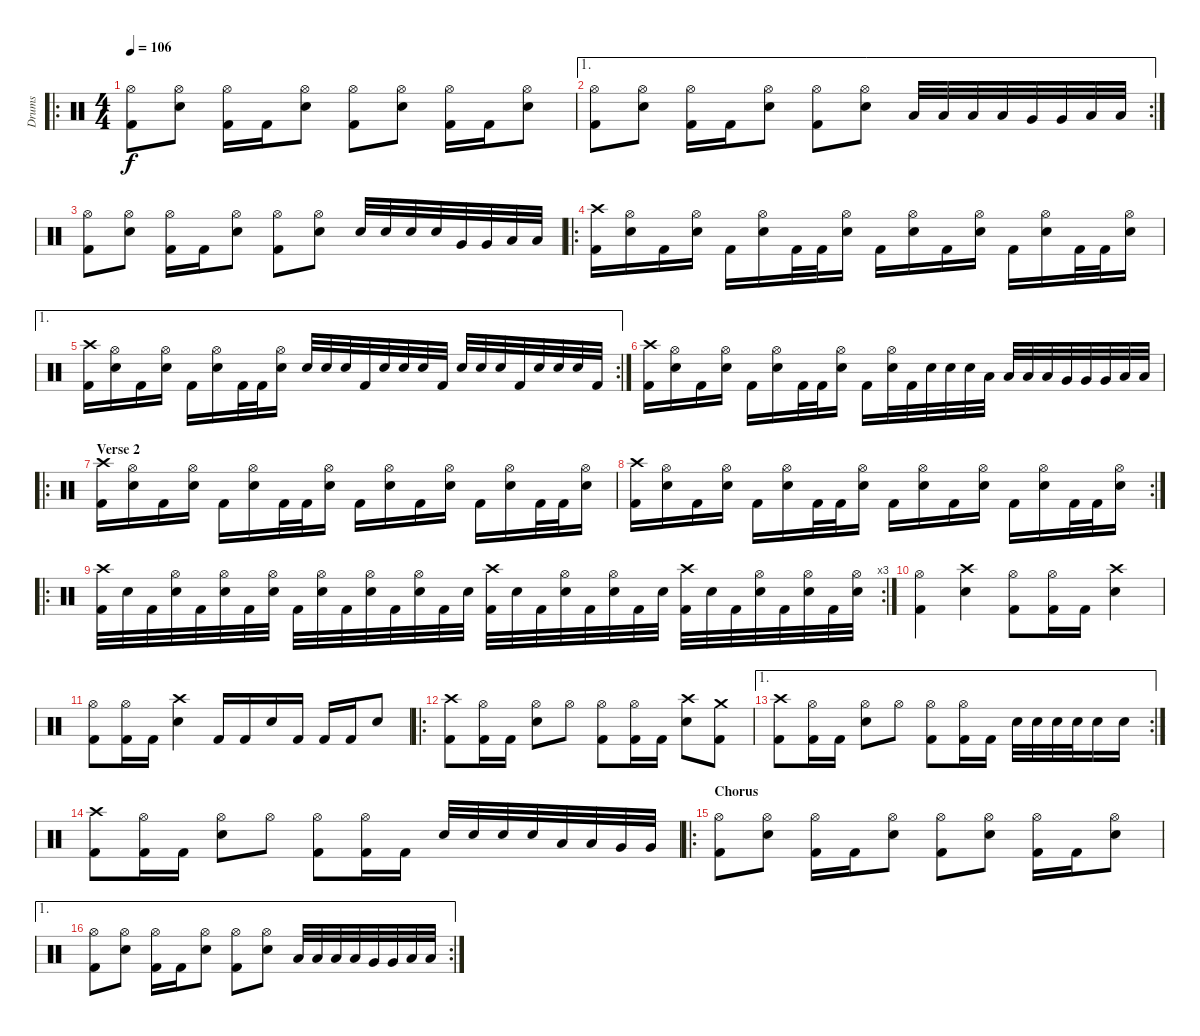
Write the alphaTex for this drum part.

\track ("Drums" "Drums") {instrument percussion}
\staff {score}
\articulation defaults
\ro
\ts (4 4)
\tempo 106
\clef neutral
\ks c
("Hi-Hat (open)" "Kick (hit) 2").8{dy f} ("Hi-Hat (open)" "Electric Snare (hit)").8 ("Hi-Hat (open)" "Kick (hit) 2").16 "Kick (hit) 2".16 ("Hi-Hat (open)" "Electric Snare (hit)").8 ("Hi-Hat (open)" "Kick (hit) 2").8 ("Hi-Hat (open)" "Electric Snare (hit)").8 ("Hi-Hat (open)" "Kick (hit) 2").16 "Kick (hit) 2".16 ("Hi-Hat (open)" "Electric Snare (hit)").8 |
\ae 1
\rc 2
("Hi-Hat (open)" "Kick (hit) 2").8 ("Hi-Hat (open)" "Electric Snare (hit)").8 ("Hi-Hat (open)" "Kick (hit) 2").16 "Kick (hit) 2".16 ("Hi-Hat (open)" "Electric Snare (hit)").8 ("Hi-Hat (open)" "Kick (hit) 2").8 ("Hi-Hat (open)" "Electric Snare (hit)").8 "Low Tom (hit)".32 "Low Tom (hit)".32 "Low Tom (hit)".32 "Low Tom (hit)".32 "Very Low Tom (hit)".32 "Very Low Tom (hit)".32 "Low Floor Tom (hit)".32 "Low Floor Tom (hit)".32 |
("Hi-Hat (open)" "Kick (hit) 2").8 ("Hi-Hat (open)" "Electric Snare (hit)").8 ("Hi-Hat (open)" "Kick (hit) 2").16 "Kick (hit) 2".16 ("Hi-Hat (open)" "Electric Snare (hit)").8 ("Hi-Hat (open)" "Kick (hit) 2").8 ("Hi-Hat (open)" "Electric Snare (hit)").8 "Electric Snare (hit)".32 "Electric Snare (hit)".32 "Electric Snare (hit)".32 "Electric Snare (hit)".32 "Very Low Tom (hit)".32 "Very Low Tom (hit)".32 "Low Floor Tom (hit)".32 "Low Floor Tom (hit)".32 |
\ro
("Crash high (hit)" "Kick (hit) 2").16 ("Electric Snare (hit)" "Hi-Hat (open)").16 "Kick (hit) 2".16 ("Electric Snare (hit)" "Hi-Hat (open)").16 "Kick (hit) 2".16 ("Electric Snare (hit)" "Hi-Hat (open)").16 "Kick (hit) 2".32 "Kick (hit) 2".32 ("Electric Snare (hit)" "Hi-Hat (open)").16 "Kick (hit) 2".16 ("Electric Snare (hit)" "Hi-Hat (open)").16 "Kick (hit) 2".16 ("Electric Snare (hit)" "Hi-Hat (open)").16 "Kick (hit) 2".16 ("Electric Snare (hit)" "Hi-Hat (open)").16 "Kick (hit) 2".32 "Kick (hit) 2".32 ("Electric Snare (hit)" "Hi-Hat (open)").16 |
\ae 1
\rc 2
("Crash high (hit)" "Kick (hit) 2").16 ("Electric Snare (hit)" "Hi-Hat (open)").16 "Kick (hit) 2".16 ("Electric Snare (hit)" "Hi-Hat (open)").16 "Kick (hit) 2".16 ("Electric Snare (hit)" "Hi-Hat (open)").16 "Kick (hit) 2".32 "Kick (hit) 2".32 ("Electric Snare (hit)" "Hi-Hat (open)").16 "Electric Snare (hit)".32 "Electric Snare (hit)".32 "Electric Snare (hit)".32 "Kick (hit) 2".32 "Electric Snare (hit)".32 "Electric Snare (hit)".32 "Electric Snare (hit)".32 "Kick (hit) 2".32 "Electric Snare (hit)".32 "Electric Snare (hit)".32 "Electric Snare (hit)".32 "Kick (hit) 2".32 "Electric Snare (hit)".32 "Electric Snare (hit)".32 "Electric Snare (hit)".32 "Kick (hit) 2".32 |
("Crash high (hit)" "Kick (hit) 2").16 ("Electric Snare (hit)" "Hi-Hat (open)").16 "Kick (hit) 2".16 ("Electric Snare (hit)" "Hi-Hat (open)").16 "Kick (hit) 2".16 ("Electric Snare (hit)" "Hi-Hat (open)").16 "Kick (hit) 2".32 "Kick (hit) 2".32 ("Electric Snare (hit)" "Hi-Hat (open)").16 "Kick (hit) 2".16 ("Electric Snare (hit)" "Hi-Hat (open)").32 "Kick (hit) 2".32 "Electric Snare (hit)".32 "Electric Snare (hit)".32 "Electric Snare (hit)".32 "Low Tom (hit)".32 "Low Tom (hit)".32 "Low Tom (hit)".32 "Low Tom (hit)".32 "Very Low Tom (hit)".32 "Very Low Tom (hit)".32 "Very Low Tom (hit)".32 "Low Floor Tom (hit)".32 "Low Floor Tom (hit)".32 |
\ro
\section ("" "Verse 2")
("Crash high (hit)" "Kick (hit) 2").16 ("Electric Snare (hit)" "Hi-Hat (open)").16 "Kick (hit) 2".16 ("Electric Snare (hit)" "Hi-Hat (open)").16 "Kick (hit) 2".16 ("Electric Snare (hit)" "Hi-Hat (open)").16 "Kick (hit) 2".32 "Kick (hit) 2".32 ("Electric Snare (hit)" "Hi-Hat (open)").16 "Kick (hit) 2".16 ("Electric Snare (hit)" "Hi-Hat (open)").16 "Kick (hit) 2".16 ("Electric Snare (hit)" "Hi-Hat (open)").16 "Kick (hit) 2".16 ("Electric Snare (hit)" "Hi-Hat (open)").16 "Kick (hit) 2".32 "Kick (hit) 2".32 ("Electric Snare (hit)" "Hi-Hat (open)").16 |
\rc 2
("Crash high (hit)" "Kick (hit) 2").16 ("Electric Snare (hit)" "Hi-Hat (open)").16 "Kick (hit) 2".16 ("Electric Snare (hit)" "Hi-Hat (open)").16 "Kick (hit) 2".16 ("Electric Snare (hit)" "Hi-Hat (open)").16 "Kick (hit) 2".32 "Kick (hit) 2".32 ("Electric Snare (hit)" "Hi-Hat (open)").16 "Kick (hit) 2".16 ("Electric Snare (hit)" "Hi-Hat (open)").16 "Kick (hit) 2".16 ("Electric Snare (hit)" "Hi-Hat (open)").16 "Kick (hit) 2".16 ("Electric Snare (hit)" "Hi-Hat (open)").16 "Kick (hit) 2".32 "Kick (hit) 2".32 ("Electric Snare (hit)" "Hi-Hat (open)").16 |
\ro
\rc 3
("Crash high (hit)" "Kick (hit) 2").32 "Electric Snare (hit)".32 "Kick (hit) 2".32 ("Electric Snare (hit)" "Hi-Hat (open)").32 "Kick (hit) 2".32 ("Electric Snare (hit)" "Hi-Hat (open)").32 "Kick (hit) 2".32 ("Electric Snare (hit)" "Hi-Hat (open)").32 "Kick (hit) 2".32 ("Electric Snare (hit)" "Hi-Hat (open)").32 "Kick (hit) 2".32 ("Electric Snare (hit)" "Hi-Hat (open)").32 "Kick (hit) 2".32 ("Electric Snare (hit)" "Hi-Hat (open)").32 "Kick (hit) 2".32 "Electric Snare (hit)".32 ("Crash high (hit)" "Kick (hit) 2").32 "Electric Snare (hit)".32 "Kick (hit) 2".32 ("Electric Snare (hit)" "Hi-Hat (open)").32 "Kick (hit) 2".32 ("Electric Snare (hit)" "Hi-Hat (open)").32 "Kick (hit) 2".32 "Electric Snare (hit)".32 ("Crash high (hit)" "Kick (hit) 2").32 "Electric Snare (hit)".32 "Kick (hit) 2".32 ("Electric Snare (hit)" "Hi-Hat (open)").32 "Kick (hit) 2".32 ("Electric Snare (hit)" "Hi-Hat (open)").32 "Kick (hit) 2".32 ("Electric Snare (hit)" "Hi-Hat (open)").32 |
("Hi-Hat (open)" "Kick (hit) 2").4 ("Crash high (hit)" "Electric Snare (hit)").4 ("Hi-Hat (open)" "Kick (hit) 2").8 ("Hi-Hat (open)" "Kick (hit) 2").16 "Kick (hit) 2".16 ("Crash high (hit)" "Electric Snare (hit)").4 |
("Hi-Hat (open)" "Kick (hit) 2").8 ("Hi-Hat (open)" "Kick (hit) 2").16 "Kick (hit) 2".16 ("Crash high (hit)" "Electric Snare (hit)").4 "Kick (hit) 2".16 "Kick (hit) 2".16 "Electric Snare (hit)".16 "Kick (hit) 2".16 "Kick (hit) 2".16 "Kick (hit) 2".16 "Electric Snare (hit)".8 |
\ro
("Crash high (hit)" "Kick (hit) 2").8 ("Hi-Hat (open)" "Kick (hit) 2").16 "Kick (hit) 2".16 ("Hi-Hat (open)" "Electric Snare (hit)").8 "Hi-Hat (open)".8 ("Hi-Hat (open)" "Kick (hit) 2").8 ("Hi-Hat (open)" "Kick (hit) 2").16 "Kick (hit) 2".16 ("Crash high (hit)" "Electric Snare (hit)").8 ("Crash medium (hit)" "Kick (hit) 2").8 |
\ae 1
\rc 2
("Crash high (hit)" "Kick (hit) 2").8 ("Hi-Hat (open)" "Kick (hit) 2").16 "Kick (hit) 2".16 ("Hi-Hat (open)" "Electric Snare (hit)").8 "Hi-Hat (open)".8 ("Hi-Hat (open)" "Kick (hit) 2").8 ("Hi-Hat (open)" "Kick (hit) 2").16 "Kick (hit) 2".16 "Electric Snare (hit)".32 "Electric Snare (hit)".32 "Electric Snare (hit)".32 "Electric Snare (hit)".32 "Electric Snare (hit)".16 "Electric Snare (hit)".16 |
("Crash high (hit)" "Kick (hit) 2").8 ("Hi-Hat (open)" "Kick (hit) 2").16 "Kick (hit) 2".16 ("Hi-Hat (open)" "Electric Snare (hit)").8 "Hi-Hat (open)".8 ("Hi-Hat (open)" "Kick (hit) 2").8 ("Hi-Hat (open)" "Kick (hit) 2").16 "Kick (hit) 2".16 "Electric Snare (hit)".32 "Electric Snare (hit)".32 "Electric Snare (hit)".32 "Electric Snare (hit)".32 "Low Tom (hit)".32 "Low Tom (hit)".32 "Very Low Tom (hit)".32 "Very Low Tom (hit)".32 |
\ro
\section ("" "Chorus")
("Hi-Hat (open)" "Kick (hit) 2").8 ("Hi-Hat (open)" "Electric Snare (hit)").8 ("Hi-Hat (open)" "Kick (hit) 2").16 "Kick (hit) 2".16 ("Hi-Hat (open)" "Electric Snare (hit)").8 ("Hi-Hat (open)" "Kick (hit) 2").8 ("Hi-Hat (open)" "Electric Snare (hit)").8 ("Hi-Hat (open)" "Kick (hit) 2").16 "Kick (hit) 2".16 ("Hi-Hat (open)" "Electric Snare (hit)").8 |
\ae 1
\rc 2
("Hi-Hat (open)" "Kick (hit) 2").8 ("Hi-Hat (open)" "Electric Snare (hit)").8 ("Hi-Hat (open)" "Kick (hit) 2").16 "Kick (hit) 2".16 ("Hi-Hat (open)" "Electric Snare (hit)").8 ("Hi-Hat (open)" "Kick (hit) 2").8 ("Hi-Hat (open)" "Electric Snare (hit)").8 "Low Tom (hit)".32 "Low Tom (hit)".32 "Low Tom (hit)".32 "Low Tom (hit)".32 "Very Low Tom (hit)".32 "Very Low Tom (hit)".32 "Low Floor Tom (hit)".32 "Low Floor Tom (hit)".32
